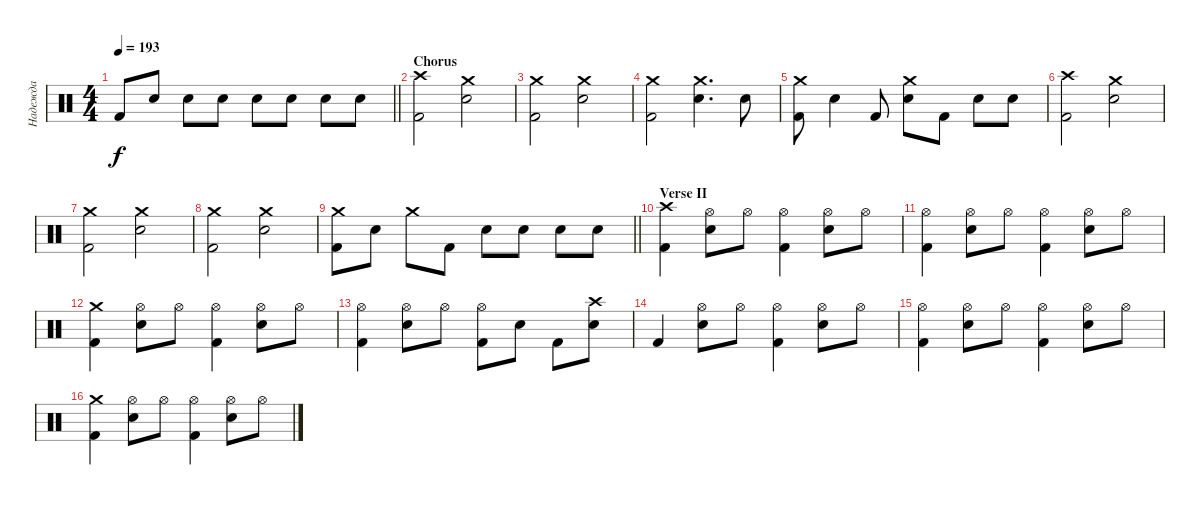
\track ("Надежда" "Надежда") {instrument percussion}
\staff {score}
\articulation defaults
\ts (4 4)
\tempo 193
\clef neutral
\barLineRight lightlight
\ks c "Kick (hit) 2".8{dy f} "Snare (hit) 2".8 "Snare (hit) 2".8 "Snare (hit) 2".8 "Snare (hit) 2".8 "Snare (hit) 2".8 "Snare (hit) 2".8 "Snare (hit) 2".8
|
\section ("" "Chorus")
("Crash high (hit)" "Kick (hit) 2").2 ("Crash medium (hit)" "Snare (hit) 2").2 |
("Crash medium (hit)" "Kick (hit) 2").2 ("Crash medium (hit)" "Snare (hit) 2").2 |
("Crash medium (hit)" "Kick (hit) 2").2 ("Crash medium (hit)" "Snare (hit) 2").4{d} "Snare (hit) 2".8 |
("Crash medium (hit)" "Kick (hit) 2").8 "Snare (hit) 2".4 "Kick (hit) 2".8 ("Crash medium (hit)" "Snare (hit) 2").8 "Kick (hit) 2".8 "Snare (hit) 2".8 "Snare (hit) 2".8 |
("Crash high (hit)" "Kick (hit) 2").2 ("Crash medium (hit)" "Snare (hit) 2").2 |
("Crash medium (hit)" "Kick (hit) 2").2 ("Crash medium (hit)" "Snare (hit) 2").2 |
("Crash medium (hit)" "Kick (hit) 2").2 ("Crash medium (hit)" "Snare (hit) 2").2 |
\barLineRight lightlight
("Crash medium (hit)" "Kick (hit) 2").8 "Snare (hit) 2".8 "Crash medium (hit)".8 "Kick (hit) 2".8 "Snare (hit) 2".8 "Snare (hit) 2".8 "Snare (hit) 2".8 "Snare (hit) 2".8 |
\section ("" "Verse II")
("Crash high (hit)" "Kick (hit) 2").4 ("Hi-Hat (open)" "Snare (hit) 2").8 "Hi-Hat (open)".8 ("Hi-Hat (open)" "Kick (hit) 2").4 ("Hi-Hat (open)" "Snare (hit) 2").8 "Hi-Hat (open)".8 |
("Hi-Hat (open)" "Kick (hit) 2").4 ("Hi-Hat (open)" "Snare (hit) 2").8 "Hi-Hat (open)".8 ("Hi-Hat (open)" "Kick (hit) 2").4 ("Hi-Hat (open)" "Snare (hit) 2").8 "Hi-Hat (open)".8 |
("Crash medium (hit)" "Kick (hit) 2").4 ("Hi-Hat (open)" "Snare (hit) 2").8 "Hi-Hat (open)".8 ("Hi-Hat (open)" "Kick (hit) 2").4 ("Hi-Hat (open)" "Snare (hit) 2").8 "Hi-Hat (open)".8 |
("Hi-Hat (open)" "Kick (hit) 2").4 ("Hi-Hat (open)" "Snare (hit) 2").8 "Hi-Hat (open)".8 ("Hi-Hat (open)" "Kick (hit) 2").8 "Snare (hit) 2".8 "Kick (hit) 2".8 ("Crash high (hit)" "Snare (hit) 2").8 |
"Kick (hit) 2".4 ("Hi-Hat (open)" "Snare (hit) 2").8 "Hi-Hat (open)".8 ("Hi-Hat (open)" "Kick (hit) 2").4 ("Hi-Hat (open)" "Snare (hit) 2").8 "Hi-Hat (open)".8 |
("Hi-Hat (open)" "Kick (hit) 2").4 ("Hi-Hat (open)" "Snare (hit) 2").8 "Hi-Hat (open)".8 ("Hi-Hat (open)" "Kick (hit) 2").4 ("Hi-Hat (open)" "Snare (hit) 2").8 "Hi-Hat (open)".8 |
("Crash medium (hit)" "Kick (hit) 2").4 ("Hi-Hat (open)" "Snare (hit) 2").8 "Hi-Hat (open)".8 ("Hi-Hat (open)" "Kick (hit) 2").4 ("Hi-Hat (open)" "Snare (hit) 2").8 "Hi-Hat (open)".8
